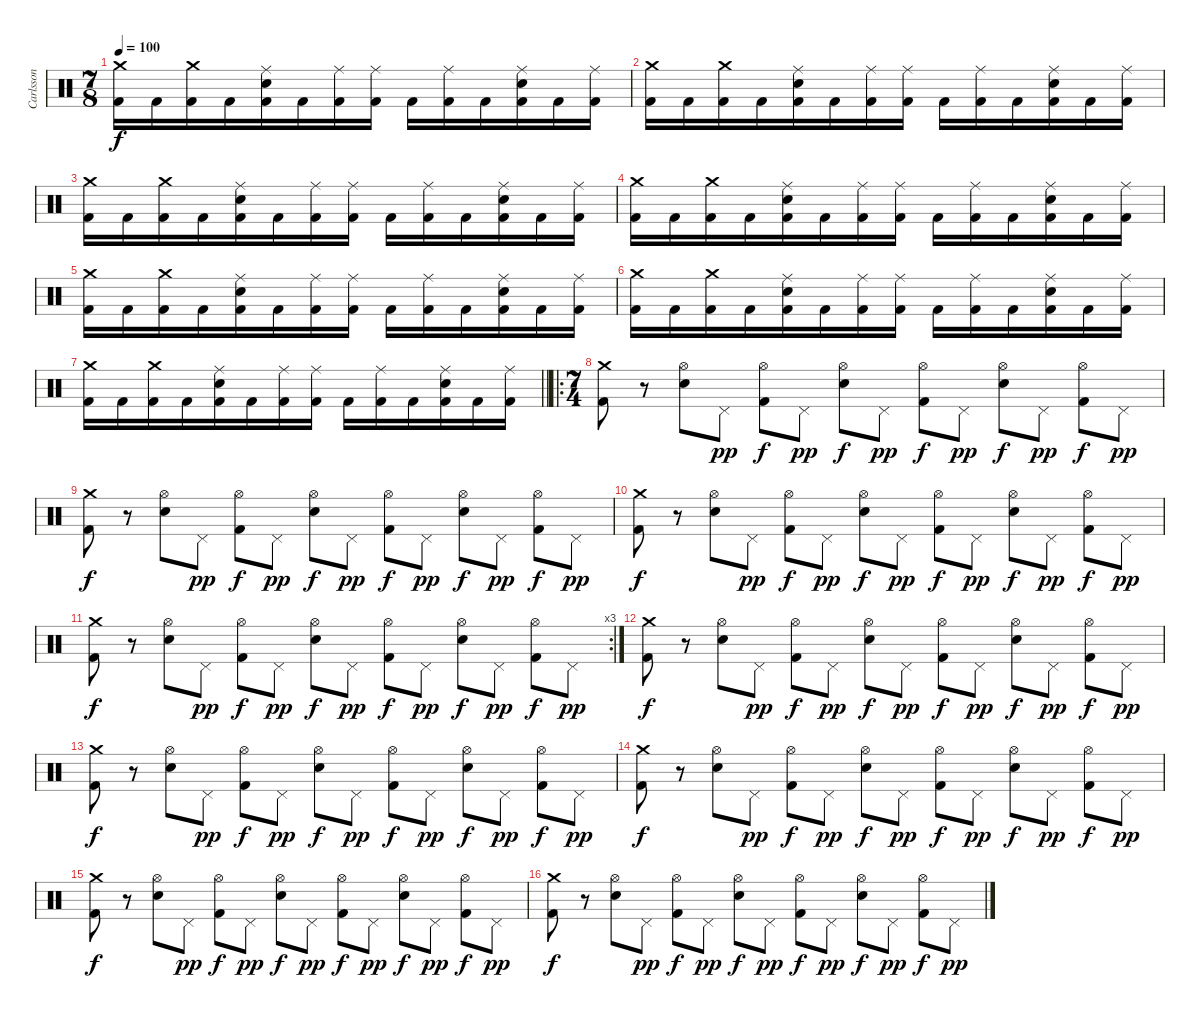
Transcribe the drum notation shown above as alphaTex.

\track ("Carlsson" "Carlsson") {instrument percussion}
\staff {score}
\articulation defaults
\ts (7 8)
\tempo 100
\clef neutral
\ks c
("Crash medium (hit)" "Kick (hit) 2").16{dy f} "Kick (hit) 2".16 ("Crash medium (hit)" "Kick (hit) 2").16 "Kick (hit) 2".16 ("Ride (middle)" "Electric Snare (hit)" "Kick (hit) 2").16 "Kick (hit) 2".16 ("Ride (middle)" "Kick (hit) 2").16 ("Ride (middle)" "Kick (hit) 2").16 "Kick (hit) 2".16 ("Ride (middle)" "Kick (hit) 2").16 "Kick (hit) 2".16 ("Ride (middle)" "Electric Snare (hit)" "Kick (hit) 2").16 "Kick (hit) 2".16 ("Ride (middle)" "Kick (hit) 2").16 |
("Crash medium (hit)" "Kick (hit) 2").16 "Kick (hit) 2".16 ("Crash medium (hit)" "Kick (hit) 2").16 "Kick (hit) 2".16 ("Ride (middle)" "Electric Snare (hit)" "Kick (hit) 2").16 "Kick (hit) 2".16 ("Ride (middle)" "Kick (hit) 2").16 ("Ride (middle)" "Kick (hit) 2").16 "Kick (hit) 2".16 ("Ride (middle)" "Kick (hit) 2").16 "Kick (hit) 2".16 ("Ride (middle)" "Electric Snare (hit)" "Kick (hit) 2").16 "Kick (hit) 2".16 ("Ride (middle)" "Kick (hit) 2").16 |
("Crash medium (hit)" "Kick (hit) 2").16 "Kick (hit) 2".16 ("Crash medium (hit)" "Kick (hit) 2").16 "Kick (hit) 2".16 ("Ride (middle)" "Electric Snare (hit)" "Kick (hit) 2").16 "Kick (hit) 2".16 ("Ride (middle)" "Kick (hit) 2").16 ("Ride (middle)" "Kick (hit) 2").16 "Kick (hit) 2".16 ("Ride (middle)" "Kick (hit) 2").16 "Kick (hit) 2".16 ("Ride (middle)" "Electric Snare (hit)" "Kick (hit) 2").16 "Kick (hit) 2".16 ("Ride (middle)" "Kick (hit) 2").16 |
("Crash medium (hit)" "Kick (hit) 2").16 "Kick (hit) 2".16 ("Crash medium (hit)" "Kick (hit) 2").16 "Kick (hit) 2".16 ("Ride (middle)" "Electric Snare (hit)" "Kick (hit) 2").16 "Kick (hit) 2".16 ("Ride (middle)" "Kick (hit) 2").16 ("Ride (middle)" "Kick (hit) 2").16 "Kick (hit) 2".16 ("Ride (middle)" "Kick (hit) 2").16 "Kick (hit) 2".16 ("Ride (middle)" "Electric Snare (hit)" "Kick (hit) 2").16 "Kick (hit) 2".16 ("Ride (middle)" "Kick (hit) 2").16 |
("Crash medium (hit)" "Kick (hit) 2").16 "Kick (hit) 2".16 ("Crash medium (hit)" "Kick (hit) 2").16 "Kick (hit) 2".16 ("Ride (middle)" "Electric Snare (hit)" "Kick (hit) 2").16 "Kick (hit) 2".16 ("Ride (middle)" "Kick (hit) 2").16 ("Ride (middle)" "Kick (hit) 2").16 "Kick (hit) 2".16 ("Ride (middle)" "Kick (hit) 2").16 "Kick (hit) 2".16 ("Ride (middle)" "Electric Snare (hit)" "Kick (hit) 2").16 "Kick (hit) 2".16 ("Ride (middle)" "Kick (hit) 2").16 |
("Crash medium (hit)" "Kick (hit) 2").16 "Kick (hit) 2".16 ("Crash medium (hit)" "Kick (hit) 2").16 "Kick (hit) 2".16 ("Ride (middle)" "Electric Snare (hit)" "Kick (hit) 2").16 "Kick (hit) 2".16 ("Ride (middle)" "Kick (hit) 2").16 ("Ride (middle)" "Kick (hit) 2").16 "Kick (hit) 2".16 ("Ride (middle)" "Kick (hit) 2").16 "Kick (hit) 2".16 ("Ride (middle)" "Electric Snare (hit)" "Kick (hit) 2").16 "Kick (hit) 2".16 ("Ride (middle)" "Kick (hit) 2").16 |
\barLineRight lightlight
("Crash medium (hit)" "Kick (hit) 2").16 "Kick (hit) 2".16 ("Crash medium (hit)" "Kick (hit) 2").16 "Kick (hit) 2".16 ("Ride (middle)" "Electric Snare (hit)" "Kick (hit) 2").16 "Kick (hit) 2".16 ("Ride (middle)" "Kick (hit) 2").16 ("Ride (middle)" "Kick (hit) 2").16 "Kick (hit) 2".16 ("Ride (middle)" "Kick (hit) 2").16 "Kick (hit) 2".16 ("Ride (middle)" "Electric Snare (hit)" "Kick (hit) 2").16 "Kick (hit) 2".16 ("Ride (middle)" "Kick (hit) 2").16 |
\ro
\ts (7 4)
("Crash medium (hit)" "Kick (hit) 2").8 r.8 ("Hi-Hat (open)" "Electric Snare (hit)").8 "Pedal Hi-Hat (hit)".8{dy pp} ("Hi-Hat (open)" "Kick (hit) 2").8{dy f} "Pedal Hi-Hat (hit)".8{dy pp} ("Hi-Hat (open)" "Electric Snare (hit)").8{dy f} "Pedal Hi-Hat (hit)".8{dy pp} ("Hi-Hat (open)" "Kick (hit) 2").8{dy f} "Pedal Hi-Hat (hit)".8{dy pp} ("Hi-Hat (open)" "Electric Snare (hit)").8{dy f} "Pedal Hi-Hat (hit)".8{dy pp} ("Hi-Hat (open)" "Kick (hit) 2").8{dy f} "Pedal Hi-Hat (hit)".8{dy pp} |
("Crash medium (hit)" "Kick (hit) 2").8{dy f} r.8 ("Hi-Hat (open)" "Electric Snare (hit)").8 "Pedal Hi-Hat (hit)".8{dy pp} ("Hi-Hat (open)" "Kick (hit) 2").8{dy f} "Pedal Hi-Hat (hit)".8{dy pp} ("Hi-Hat (open)" "Electric Snare (hit)").8{dy f} "Pedal Hi-Hat (hit)".8{dy pp} ("Hi-Hat (open)" "Kick (hit) 2").8{dy f} "Pedal Hi-Hat (hit)".8{dy pp} ("Hi-Hat (open)" "Electric Snare (hit)").8{dy f} "Pedal Hi-Hat (hit)".8{dy pp} ("Hi-Hat (open)" "Kick (hit) 2").8{dy f} "Pedal Hi-Hat (hit)".8{dy pp} |
("Crash medium (hit)" "Kick (hit) 2").8{dy f} r.8 ("Hi-Hat (open)" "Electric Snare (hit)").8 "Pedal Hi-Hat (hit)".8{dy pp} ("Hi-Hat (open)" "Kick (hit) 2").8{dy f} "Pedal Hi-Hat (hit)".8{dy pp} ("Hi-Hat (open)" "Electric Snare (hit)").8{dy f} "Pedal Hi-Hat (hit)".8{dy pp} ("Hi-Hat (open)" "Kick (hit) 2").8{dy f} "Pedal Hi-Hat (hit)".8{dy pp} ("Hi-Hat (open)" "Electric Snare (hit)").8{dy f} "Pedal Hi-Hat (hit)".8{dy pp} ("Hi-Hat (open)" "Kick (hit) 2").8{dy f} "Pedal Hi-Hat (hit)".8{dy pp} |
\rc 3
("Crash medium (hit)" "Kick (hit) 2").8{dy f} r.8 ("Hi-Hat (open)" "Electric Snare (hit)").8 "Pedal Hi-Hat (hit)".8{dy pp} ("Hi-Hat (open)" "Kick (hit) 2").8{dy f} "Pedal Hi-Hat (hit)".8{dy pp} ("Hi-Hat (open)" "Electric Snare (hit)").8{dy f} "Pedal Hi-Hat (hit)".8{dy pp} ("Hi-Hat (open)" "Kick (hit) 2").8{dy f} "Pedal Hi-Hat (hit)".8{dy pp} ("Hi-Hat (open)" "Electric Snare (hit)").8{dy f} "Pedal Hi-Hat (hit)".8{dy pp} ("Hi-Hat (open)" "Kick (hit) 2").8{dy f} "Pedal Hi-Hat (hit)".8{dy pp} |
("Crash medium (hit)" "Kick (hit) 2").8{dy f} r.8 ("Hi-Hat (open)" "Electric Snare (hit)").8 "Pedal Hi-Hat (hit)".8{dy pp} ("Hi-Hat (open)" "Kick (hit) 2").8{dy f} "Pedal Hi-Hat (hit)".8{dy pp} ("Hi-Hat (open)" "Electric Snare (hit)").8{dy f} "Pedal Hi-Hat (hit)".8{dy pp} ("Hi-Hat (open)" "Kick (hit) 2").8{dy f} "Pedal Hi-Hat (hit)".8{dy pp} ("Hi-Hat (open)" "Electric Snare (hit)").8{dy f} "Pedal Hi-Hat (hit)".8{dy pp} ("Hi-Hat (open)" "Kick (hit) 2").8{dy f} "Pedal Hi-Hat (hit)".8{dy pp} |
("Crash medium (hit)" "Kick (hit) 2").8{dy f} r.8 ("Hi-Hat (open)" "Electric Snare (hit)").8 "Pedal Hi-Hat (hit)".8{dy pp} ("Hi-Hat (open)" "Kick (hit) 2").8{dy f} "Pedal Hi-Hat (hit)".8{dy pp} ("Hi-Hat (open)" "Electric Snare (hit)").8{dy f} "Pedal Hi-Hat (hit)".8{dy pp} ("Hi-Hat (open)" "Kick (hit) 2").8{dy f} "Pedal Hi-Hat (hit)".8{dy pp} ("Hi-Hat (open)" "Electric Snare (hit)").8{dy f} "Pedal Hi-Hat (hit)".8{dy pp} ("Hi-Hat (open)" "Kick (hit) 2").8{dy f} "Pedal Hi-Hat (hit)".8{dy pp} |
("Crash medium (hit)" "Kick (hit) 2").8{dy f} r.8 ("Hi-Hat (open)" "Electric Snare (hit)").8 "Pedal Hi-Hat (hit)".8{dy pp} ("Hi-Hat (open)" "Kick (hit) 2").8{dy f} "Pedal Hi-Hat (hit)".8{dy pp} ("Hi-Hat (open)" "Electric Snare (hit)").8{dy f} "Pedal Hi-Hat (hit)".8{dy pp} ("Hi-Hat (open)" "Kick (hit) 2").8{dy f} "Pedal Hi-Hat (hit)".8{dy pp} ("Hi-Hat (open)" "Electric Snare (hit)").8{dy f} "Pedal Hi-Hat (hit)".8{dy pp} ("Hi-Hat (open)" "Kick (hit) 2").8{dy f} "Pedal Hi-Hat (hit)".8{dy pp} |
("Crash medium (hit)" "Kick (hit) 2").8{dy f} r.8 ("Hi-Hat (open)" "Electric Snare (hit)").8 "Pedal Hi-Hat (hit)".8{dy pp} ("Hi-Hat (open)" "Kick (hit) 2").8{dy f} "Pedal Hi-Hat (hit)".8{dy pp} ("Hi-Hat (open)" "Electric Snare (hit)").8{dy f} "Pedal Hi-Hat (hit)".8{dy pp} ("Hi-Hat (open)" "Kick (hit) 2").8{dy f} "Pedal Hi-Hat (hit)".8{dy pp} ("Hi-Hat (open)" "Electric Snare (hit)").8{dy f} "Pedal Hi-Hat (hit)".8{dy pp} ("Hi-Hat (open)" "Kick (hit) 2").8{dy f} "Pedal Hi-Hat (hit)".8{dy pp} |
("Crash medium (hit)" "Kick (hit) 2").8{dy f} r.8 ("Hi-Hat (open)" "Electric Snare (hit)").8 "Pedal Hi-Hat (hit)".8{dy pp} ("Hi-Hat (open)" "Kick (hit) 2").8{dy f} "Pedal Hi-Hat (hit)".8{dy pp} ("Hi-Hat (open)" "Electric Snare (hit)").8{dy f} "Pedal Hi-Hat (hit)".8{dy pp} ("Hi-Hat (open)" "Kick (hit) 2").8{dy f} "Pedal Hi-Hat (hit)".8{dy pp} ("Hi-Hat (open)" "Electric Snare (hit)").8{dy f} "Pedal Hi-Hat (hit)".8{dy pp} ("Hi-Hat (open)" "Kick (hit) 2").8{dy f} "Pedal Hi-Hat (hit)".8{dy pp}
